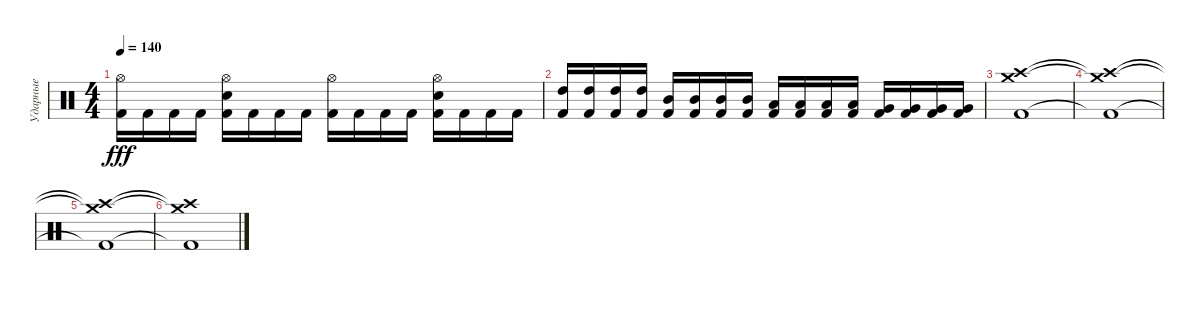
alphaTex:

\track ("Ударные" "Ударные") {instrument percussion}
\staff {score}
\articulation defaults
\ts (4 4)
\tempo 140
\clef neutral
\ks c
("Hi-Hat (open)" "Kick (hit) 2").16{dy fff} "Kick (hit) 2".16 "Kick (hit) 2".16 "Kick (hit) 2".16 ("Hi-Hat (open)" "Electric Snare (hit)" "Kick (hit) 2").16 "Kick (hit) 2".16 "Kick (hit) 2".16 "Kick (hit) 2".16 ("Hi-Hat (open)" "Kick (hit) 2").16 "Kick (hit) 2".16 "Kick (hit) 2".16 "Kick (hit) 2".16 ("Hi-Hat (open)" "Electric Snare (hit)" "Kick (hit) 2").16 "Kick (hit) 2".16 "Kick (hit) 2".16 "Kick (hit) 2".16 |
("High Tom (hit)" "Kick (hit) 2").16 ("High Tom (hit)" "Kick (hit) 2").16 ("High Tom (hit)" "Kick (hit) 2").16 ("High Tom (hit)" "Kick (hit) 2").16 ("Mid Tom (hit)" "Kick (hit) 2").16 ("Mid Tom (hit)" "Kick (hit) 2").16 ("Mid Tom (hit)" "Kick (hit) 2").16 ("Mid Tom (hit)" "Kick (hit) 2").16 ("Low Tom (hit)" "Kick (hit) 2").16 ("Low Tom (hit)" "Kick (hit) 2").16 ("Low Tom (hit)" "Kick (hit) 2").16 ("Low Tom (hit)" "Kick (hit) 2").16 ("Very Low Tom (hit)" "Kick (hit) 2").16 ("Very Low Tom (hit)" "Kick (hit) 2").16 ("Very Low Tom (hit)" "Kick (hit) 2").16 ("Very Low Tom (hit)" "Kick (hit) 2").16 |
("Crash medium (hit)" "Crash high (hit)" "Kick (hit) 2").1 |
("Crash medium (hit)"{t} "Crash high (hit)"{t} "Kick (hit) 2"{t}).1 |
("Crash medium (hit)"{t} "Crash high (hit)"{t} "Kick (hit) 2"{t}).1 |
("Crash medium (hit)"{t} "Crash high (hit)"{t} "Kick (hit) 2"{t}).1
